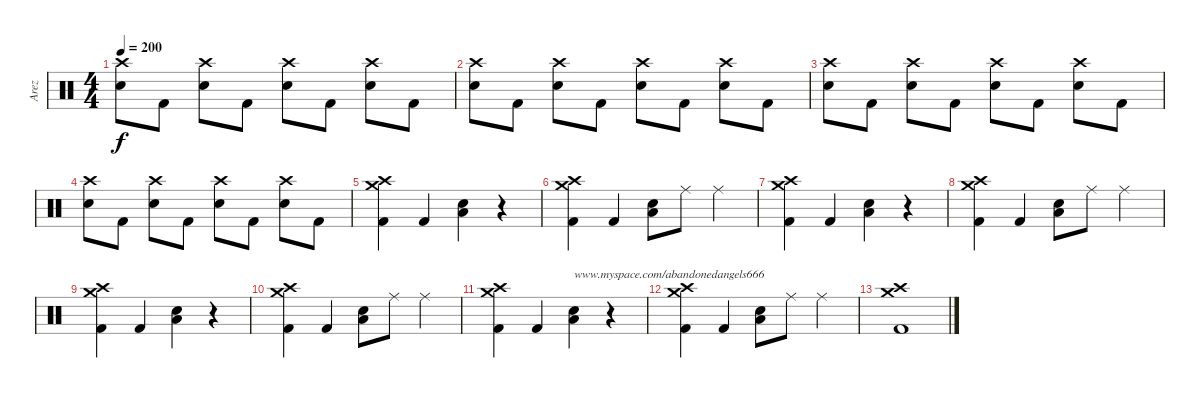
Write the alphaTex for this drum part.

\track ("Arez" "Arez") {instrument percussion}
\staff {score}
\articulation defaults
\ts (4 4)
\tempo 200
\clef neutral
\ks c
("Crash high (hit)" "Electric Snare (hit)").8{dy f} "Kick (hit) 2".8 ("Electric Snare (hit)" "Crash high (hit)").8 "Kick (hit) 2".8 ("Electric Snare (hit)" "Crash high (hit)").8 "Kick (hit) 2".8 ("Electric Snare (hit)" "Crash high (hit)").8 "Kick (hit) 2".8 |
("Crash high (hit)" "Electric Snare (hit)").8 "Kick (hit) 2".8 ("Electric Snare (hit)" "Crash high (hit)").8 "Kick (hit) 2".8 ("Electric Snare (hit)" "Crash high (hit)").8 "Kick (hit) 2".8 ("Electric Snare (hit)" "Crash high (hit)").8 "Kick (hit) 2".8 |
("Crash high (hit)" "Electric Snare (hit)").8 "Kick (hit) 2".8 ("Electric Snare (hit)" "Crash high (hit)").8 "Kick (hit) 2".8 ("Electric Snare (hit)" "Crash high (hit)").8 "Kick (hit) 2".8 ("Electric Snare (hit)" "Crash high (hit)").8 "Kick (hit) 2".8 |
("Crash high (hit)" "Electric Snare (hit)").8 "Kick (hit) 2".8 ("Electric Snare (hit)" "Crash high (hit)").8 "Kick (hit) 2".8 ("Electric Snare (hit)" "Crash high (hit)").8 "Kick (hit) 2".8 ("Electric Snare (hit)" "Crash high (hit)").8 "Kick (hit) 2".8 |
("Crash high (hit)" "Crash medium (hit)" "Kick (hit) 2").4 "Kick (hit) 2".4 ("Electric Snare (hit)" "Low Floor Tom (hit)").4 r.4 |
("Crash high (hit)" "Crash medium (hit)" "Kick (hit) 2").4 "Kick (hit) 2".4 ("Electric Snare (hit)" "Low Floor Tom (hit)").8 "Ride (middle)".8 "Ride (middle)".4 |
("Crash high (hit)" "Crash medium (hit)" "Kick (hit) 2").4 "Kick (hit) 2".4 ("Electric Snare (hit)" "Low Floor Tom (hit)").4 r.4 |
("Crash high (hit)" "Crash medium (hit)" "Kick (hit) 2").4 "Kick (hit) 2".4 ("Electric Snare (hit)" "Low Floor Tom (hit)").8 "Ride (middle)".8 "Ride (middle)".4 |
("Crash high (hit)" "Crash medium (hit)" "Kick (hit) 2").4 "Kick (hit) 2".4 ("Electric Snare (hit)" "Low Floor Tom (hit)").4 r.4 |
("Crash high (hit)" "Crash medium (hit)" "Kick (hit) 2").4 "Kick (hit) 2".4 ("Electric Snare (hit)" "Low Floor Tom (hit)").8 "Ride (middle)".8 "Ride (middle)".4 |
("Crash high (hit)" "Crash medium (hit)" "Kick (hit) 2").4 "Kick (hit) 2".4 ("Electric Snare (hit)" "Low Floor Tom (hit)").4{txt "www.myspace.com/abandonedangels666"} r.4 |
("Crash high (hit)" "Crash medium (hit)" "Kick (hit) 2").4 "Kick (hit) 2".4 ("Electric Snare (hit)" "Low Floor Tom (hit)").8 "Ride (middle)".8 "Ride (middle)".4 |
("Crash high (hit)" "Crash medium (hit)" "Kick (hit) 2").1
